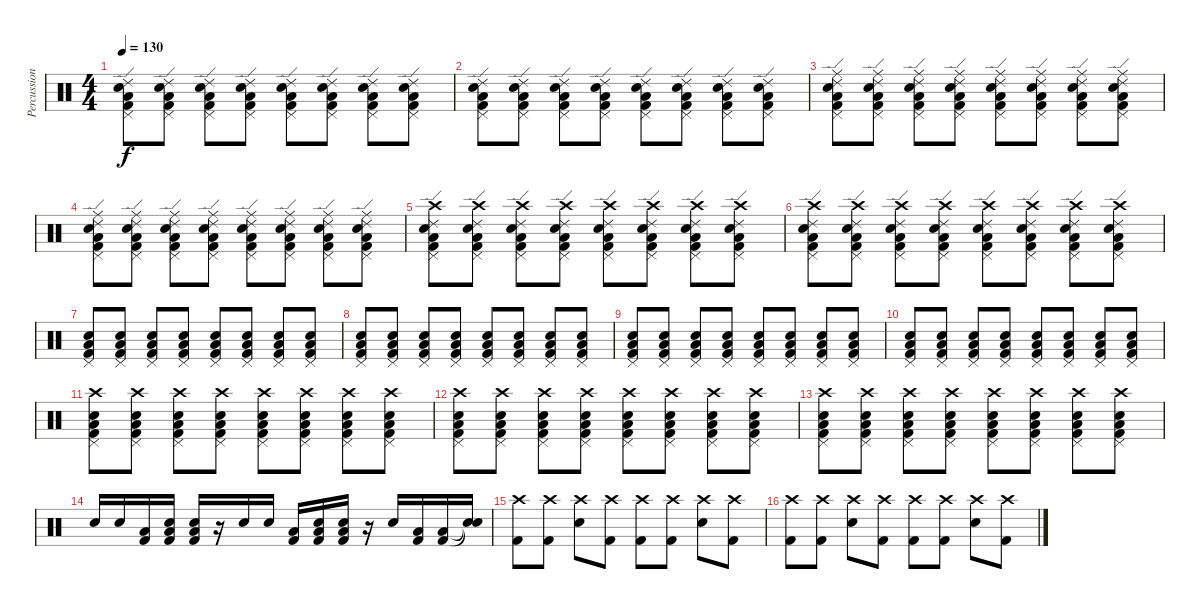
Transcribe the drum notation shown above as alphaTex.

\track ("Percussion" "Percussion") {instrument percussion}
\staff {score}
\articulation defaults
\ts (4 4)
\tempo 130
\clef neutral
\ks c
("Low Tom (hit)" "Snare (hit) 2" "Pedal Hi-Hat (hit)" "Kick (hit) 2" "Ride (edge) 2").8{dy f} ("Low Tom (hit)" "Snare (hit) 2" "Pedal Hi-Hat (hit)" "Kick (hit) 2" "Ride (edge) 2").8 ("Low Tom (hit)" "Snare (hit) 2" "Pedal Hi-Hat (hit)" "Kick (hit) 2" "Ride (edge) 2").8 ("Low Tom (hit)" "Snare (hit) 2" "Pedal Hi-Hat (hit)" "Kick (hit) 2" "Ride (edge) 2").8 ("Low Tom (hit)" "Snare (hit) 2" "Pedal Hi-Hat (hit)" "Kick (hit) 2" "Ride (edge) 2").8 ("Low Tom (hit)" "Snare (hit) 2" "Pedal Hi-Hat (hit)" "Kick (hit) 2" "Ride (edge) 2").8 ("Low Tom (hit)" "Snare (hit) 2" "Pedal Hi-Hat (hit)" "Kick (hit) 2" "Ride (edge) 2").8 ("Low Tom (hit)" "Snare (hit) 2" "Pedal Hi-Hat (hit)" "Kick (hit) 2" "Ride (edge) 2").8 |
("Low Tom (hit)" "Snare (hit) 2" "Pedal Hi-Hat (hit)" "Kick (hit) 2" "Ride (edge) 2").8 ("Low Tom (hit)" "Snare (hit) 2" "Pedal Hi-Hat (hit)" "Kick (hit) 2" "Ride (edge) 2").8 ("Low Tom (hit)" "Snare (hit) 2" "Pedal Hi-Hat (hit)" "Kick (hit) 2" "Ride (edge) 2").8 ("Low Tom (hit)" "Snare (hit) 2" "Pedal Hi-Hat (hit)" "Kick (hit) 2" "Ride (edge) 2").8 ("Low Tom (hit)" "Snare (hit) 2" "Pedal Hi-Hat (hit)" "Kick (hit) 2" "Ride (edge) 2").8 ("Low Tom (hit)" "Snare (hit) 2" "Pedal Hi-Hat (hit)" "Kick (hit) 2" "Ride (edge) 2").8 ("Low Tom (hit)" "Snare (hit) 2" "Pedal Hi-Hat (hit)" "Kick (hit) 2" "Ride (edge) 2").8 ("Low Tom (hit)" "Snare (hit) 2" "Pedal Hi-Hat (hit)" "Kick (hit) 2" "Ride (edge) 2").8 |
("Ride (edge) 2" "Low Tom (hit)" "Snare (hit) 2" "Pedal Hi-Hat (hit)" "Kick (hit) 2" "Ride (middle)").8 ("Ride (edge) 2" "Low Tom (hit)" "Snare (hit) 2" "Pedal Hi-Hat (hit)" "Kick (hit) 2" "Ride (middle)").8 ("Ride (edge) 2" "Low Tom (hit)" "Snare (hit) 2" "Pedal Hi-Hat (hit)" "Kick (hit) 2" "Ride (middle)").8 ("Ride (edge) 2" "Low Tom (hit)" "Snare (hit) 2" "Pedal Hi-Hat (hit)" "Kick (hit) 2" "Ride (middle)").8 ("Ride (edge) 2" "Low Tom (hit)" "Snare (hit) 2" "Pedal Hi-Hat (hit)" "Kick (hit) 2" "Ride (middle)").8 ("Ride (edge) 2" "Low Tom (hit)" "Snare (hit) 2" "Pedal Hi-Hat (hit)" "Kick (hit) 2" "Ride (middle)").8 ("Ride (edge) 2" "Low Tom (hit)" "Snare (hit) 2" "Pedal Hi-Hat (hit)" "Kick (hit) 2" "Ride (middle)").8 ("Ride (edge) 2" "Low Tom (hit)" "Snare (hit) 2" "Pedal Hi-Hat (hit)" "Kick (hit) 2" "Ride (middle)").8 |
("Ride (edge) 2" "Low Tom (hit)" "Snare (hit) 2" "Pedal Hi-Hat (hit)" "Kick (hit) 2" "Ride (middle)").8 ("Ride (edge) 2" "Low Tom (hit)" "Snare (hit) 2" "Pedal Hi-Hat (hit)" "Kick (hit) 2" "Ride (middle)").8 ("Ride (edge) 2" "Low Tom (hit)" "Snare (hit) 2" "Pedal Hi-Hat (hit)" "Kick (hit) 2" "Ride (middle)").8 ("Ride (edge) 2" "Low Tom (hit)" "Snare (hit) 2" "Pedal Hi-Hat (hit)" "Kick (hit) 2" "Ride (middle)").8 ("Ride (edge) 2" "Low Tom (hit)" "Snare (hit) 2" "Pedal Hi-Hat (hit)" "Kick (hit) 2" "Ride (middle)").8 ("Ride (edge) 2" "Low Tom (hit)" "Snare (hit) 2" "Pedal Hi-Hat (hit)" "Kick (hit) 2" "Ride (middle)").8 ("Ride (edge) 2" "Low Tom (hit)" "Snare (hit) 2" "Pedal Hi-Hat (hit)" "Kick (hit) 2" "Ride (middle)").8 ("Ride (edge) 2" "Low Tom (hit)" "Snare (hit) 2" "Pedal Hi-Hat (hit)" "Kick (hit) 2" "Ride (middle)").8 |
("Ride (edge) 2" "Low Tom (hit)" "Snare (hit) 2" "Pedal Hi-Hat (hit)" "Kick (hit) 2" "Crash high (hit)").8 ("Ride (edge) 2" "Low Tom (hit)" "Snare (hit) 2" "Pedal Hi-Hat (hit)" "Kick (hit) 2" "Crash high (hit)").8 ("Ride (edge) 2" "Low Tom (hit)" "Snare (hit) 2" "Pedal Hi-Hat (hit)" "Kick (hit) 2" "Crash high (hit)").8 ("Ride (edge) 2" "Low Tom (hit)" "Snare (hit) 2" "Pedal Hi-Hat (hit)" "Kick (hit) 2" "Crash high (hit)").8 ("Ride (edge) 2" "Low Tom (hit)" "Snare (hit) 2" "Pedal Hi-Hat (hit)" "Kick (hit) 2" "Crash high (hit)").8 ("Ride (edge) 2" "Low Tom (hit)" "Snare (hit) 2" "Pedal Hi-Hat (hit)" "Kick (hit) 2" "Crash high (hit)").8 ("Ride (edge) 2" "Low Tom (hit)" "Snare (hit) 2" "Pedal Hi-Hat (hit)" "Kick (hit) 2" "Crash high (hit)").8 ("Ride (edge) 2" "Low Tom (hit)" "Snare (hit) 2" "Pedal Hi-Hat (hit)" "Kick (hit) 2" "Crash high (hit)").8 |
("Ride (edge) 2" "Low Tom (hit)" "Snare (hit) 2" "Pedal Hi-Hat (hit)" "Kick (hit) 2" "Crash high (hit)").8 ("Ride (edge) 2" "Low Tom (hit)" "Snare (hit) 2" "Pedal Hi-Hat (hit)" "Kick (hit) 2" "Crash high (hit)").8 ("Ride (edge) 2" "Low Tom (hit)" "Snare (hit) 2" "Pedal Hi-Hat (hit)" "Kick (hit) 2" "Crash high (hit)").8 ("Ride (edge) 2" "Low Tom (hit)" "Snare (hit) 2" "Pedal Hi-Hat (hit)" "Kick (hit) 2" "Crash high (hit)").8 ("Ride (edge) 2" "Low Tom (hit)" "Snare (hit) 2" "Pedal Hi-Hat (hit)" "Kick (hit) 2" "Crash high (hit)").8 ("Ride (edge) 2" "Low Tom (hit)" "Snare (hit) 2" "Pedal Hi-Hat (hit)" "Kick (hit) 2" "Crash high (hit)").8 ("Ride (edge) 2" "Low Tom (hit)" "Snare (hit) 2" "Pedal Hi-Hat (hit)" "Kick (hit) 2" "Crash high (hit)").8 ("Ride (edge) 2" "Low Tom (hit)" "Snare (hit) 2" "Pedal Hi-Hat (hit)" "Kick (hit) 2" "Crash high (hit)").8 |
("Low Tom (hit)" "Snare (hit) 2" "Pedal Hi-Hat (hit)" "Kick (hit) 2").8 ("Low Tom (hit)" "Snare (hit) 2" "Pedal Hi-Hat (hit)" "Kick (hit) 2").8 ("Low Tom (hit)" "Snare (hit) 2" "Pedal Hi-Hat (hit)" "Kick (hit) 2").8 ("Low Tom (hit)" "Snare (hit) 2" "Pedal Hi-Hat (hit)" "Kick (hit) 2").8 ("Low Tom (hit)" "Snare (hit) 2" "Pedal Hi-Hat (hit)" "Kick (hit) 2").8 ("Low Tom (hit)" "Snare (hit) 2" "Pedal Hi-Hat (hit)" "Kick (hit) 2").8 ("Low Tom (hit)" "Snare (hit) 2" "Pedal Hi-Hat (hit)" "Kick (hit) 2").8 ("Low Tom (hit)" "Snare (hit) 2" "Pedal Hi-Hat (hit)" "Kick (hit) 2").8 |
("Low Tom (hit)" "Snare (hit) 2" "Pedal Hi-Hat (hit)" "Kick (hit) 2").8 ("Low Tom (hit)" "Snare (hit) 2" "Pedal Hi-Hat (hit)" "Kick (hit) 2").8 ("Low Tom (hit)" "Snare (hit) 2" "Pedal Hi-Hat (hit)" "Kick (hit) 2").8 ("Low Tom (hit)" "Snare (hit) 2" "Pedal Hi-Hat (hit)" "Kick (hit) 2").8 ("Low Tom (hit)" "Snare (hit) 2" "Pedal Hi-Hat (hit)" "Kick (hit) 2").8 ("Low Tom (hit)" "Snare (hit) 2" "Pedal Hi-Hat (hit)" "Kick (hit) 2").8 ("Low Tom (hit)" "Snare (hit) 2" "Pedal Hi-Hat (hit)" "Kick (hit) 2").8 ("Low Tom (hit)" "Snare (hit) 2" "Pedal Hi-Hat (hit)" "Kick (hit) 2").8 |
("Low Tom (hit)" "Snare (hit) 2" "Pedal Hi-Hat (hit)" "Kick (hit) 2").8 ("Low Tom (hit)" "Snare (hit) 2" "Pedal Hi-Hat (hit)" "Kick (hit) 2").8 ("Low Tom (hit)" "Snare (hit) 2" "Pedal Hi-Hat (hit)" "Kick (hit) 2").8 ("Low Tom (hit)" "Snare (hit) 2" "Pedal Hi-Hat (hit)" "Kick (hit) 2").8 ("Low Tom (hit)" "Snare (hit) 2" "Pedal Hi-Hat (hit)" "Kick (hit) 2").8 ("Low Tom (hit)" "Snare (hit) 2" "Pedal Hi-Hat (hit)" "Kick (hit) 2").8 ("Low Tom (hit)" "Snare (hit) 2" "Pedal Hi-Hat (hit)" "Kick (hit) 2").8 ("Low Tom (hit)" "Snare (hit) 2" "Pedal Hi-Hat (hit)" "Kick (hit) 2").8 |
("Low Tom (hit)" "Snare (hit) 2" "Pedal Hi-Hat (hit)" "Kick (hit) 2").8 ("Low Tom (hit)" "Snare (hit) 2" "Pedal Hi-Hat (hit)" "Kick (hit) 2").8 ("Low Tom (hit)" "Snare (hit) 2" "Pedal Hi-Hat (hit)" "Kick (hit) 2").8 ("Low Tom (hit)" "Snare (hit) 2" "Pedal Hi-Hat (hit)" "Kick (hit) 2").8 ("Low Tom (hit)" "Snare (hit) 2" "Pedal Hi-Hat (hit)" "Kick (hit) 2").8 ("Low Tom (hit)" "Snare (hit) 2" "Pedal Hi-Hat (hit)" "Kick (hit) 2").8 ("Low Tom (hit)" "Snare (hit) 2" "Pedal Hi-Hat (hit)" "Kick (hit) 2").8 ("Low Tom (hit)" "Snare (hit) 2" "Pedal Hi-Hat (hit)" "Kick (hit) 2").8 |
("Low Tom (hit)" "Snare (hit) 2" "Pedal Hi-Hat (hit)" "Kick (hit) 2" "Crash high (hit)").8 ("Low Tom (hit)" "Snare (hit) 2" "Pedal Hi-Hat (hit)" "Kick (hit) 2" "Crash high (hit)").8 ("Low Tom (hit)" "Snare (hit) 2" "Pedal Hi-Hat (hit)" "Kick (hit) 2" "Crash high (hit)").8 ("Low Tom (hit)" "Snare (hit) 2" "Pedal Hi-Hat (hit)" "Kick (hit) 2" "Crash high (hit)").8 ("Low Tom (hit)" "Snare (hit) 2" "Pedal Hi-Hat (hit)" "Kick (hit) 2" "Crash high (hit)").8 ("Low Tom (hit)" "Snare (hit) 2" "Pedal Hi-Hat (hit)" "Kick (hit) 2" "Crash high (hit)").8 ("Low Tom (hit)" "Snare (hit) 2" "Pedal Hi-Hat (hit)" "Kick (hit) 2" "Crash high (hit)").8 ("Low Tom (hit)" "Snare (hit) 2" "Pedal Hi-Hat (hit)" "Kick (hit) 2" "Crash high (hit)").8 |
("Low Tom (hit)" "Snare (hit) 2" "Pedal Hi-Hat (hit)" "Kick (hit) 2" "Crash high (hit)").8 ("Low Tom (hit)" "Snare (hit) 2" "Pedal Hi-Hat (hit)" "Kick (hit) 2" "Crash high (hit)").8 ("Low Tom (hit)" "Snare (hit) 2" "Pedal Hi-Hat (hit)" "Kick (hit) 2" "Crash high (hit)").8 ("Low Tom (hit)" "Snare (hit) 2" "Pedal Hi-Hat (hit)" "Kick (hit) 2" "Crash high (hit)").8 ("Low Tom (hit)" "Snare (hit) 2" "Pedal Hi-Hat (hit)" "Kick (hit) 2" "Crash high (hit)").8 ("Low Tom (hit)" "Snare (hit) 2" "Pedal Hi-Hat (hit)" "Kick (hit) 2" "Crash high (hit)").8 ("Low Tom (hit)" "Snare (hit) 2" "Pedal Hi-Hat (hit)" "Kick (hit) 2" "Crash high (hit)").8 ("Low Tom (hit)" "Snare (hit) 2" "Pedal Hi-Hat (hit)" "Kick (hit) 2" "Crash high (hit)").8 |
("Low Tom (hit)" "Snare (hit) 2" "Pedal Hi-Hat (hit)" "Kick (hit) 2" "Crash high (hit)").8 ("Low Tom (hit)" "Snare (hit) 2" "Pedal Hi-Hat (hit)" "Kick (hit) 2" "Crash high (hit)").8 ("Low Tom (hit)" "Snare (hit) 2" "Pedal Hi-Hat (hit)" "Kick (hit) 2" "Crash high (hit)").8 ("Low Tom (hit)" "Snare (hit) 2" "Pedal Hi-Hat (hit)" "Kick (hit) 2" "Crash high (hit)").8 ("Low Tom (hit)" "Snare (hit) 2" "Pedal Hi-Hat (hit)" "Kick (hit) 2" "Crash high (hit)").8 ("Low Tom (hit)" "Snare (hit) 2" "Pedal Hi-Hat (hit)" "Kick (hit) 2" "Crash high (hit)").8 ("Low Tom (hit)" "Snare (hit) 2" "Pedal Hi-Hat (hit)" "Kick (hit) 2" "Crash high (hit)").8 ("Low Tom (hit)" "Snare (hit) 2" "Pedal Hi-Hat (hit)" "Kick (hit) 2" "Crash high (hit)").8 |
"Snare (hit) 2".16 "Snare (hit) 2".16 ("Low Tom (hit)" "Kick (hit) 2").16 ("Snare (hit) 2" "Low Tom (hit)" "Kick (hit) 2").16 ("Snare (hit) 2" "Low Tom (hit)" "Kick (hit) 2").16 r.16 "Snare (hit) 2".16 "Snare (hit) 2".16 ("Low Tom (hit)" "Kick (hit) 2").16 ("Snare (hit) 2" "Low Tom (hit)" "Kick (hit) 2").16 ("Snare (hit) 2" "Low Tom (hit)" "Kick (hit) 2").16 r.16 "Snare (hit) 2".16 ("Low Tom (hit)" "Kick (hit) 2").16 ("Low Tom (hit)" "Kick (hit) 2").16 ("Snare (hit)"{t} "Snare (hit)"{t}).16 |
("Crash high (hit)" "Kick (hit) 2").8 ("Crash high (hit)" "Kick (hit) 2").8 ("Crash high (hit)" "Snare (hit) 2").8 ("Crash high (hit)" "Kick (hit) 2").8 ("Crash high (hit)" "Kick (hit) 2").8 ("Crash high (hit)" "Kick (hit) 2").8 ("Crash high (hit)" "Snare (hit) 2").8 ("Crash high (hit)" "Kick (hit) 2").8 |
("Crash high (hit)" "Kick (hit) 2").8 ("Crash high (hit)" "Kick (hit) 2").8 ("Crash high (hit)" "Snare (hit) 2").8 ("Crash high (hit)" "Kick (hit) 2").8 ("Crash high (hit)" "Kick (hit) 2").8 ("Crash high (hit)" "Kick (hit) 2").8 ("Crash high (hit)" "Snare (hit) 2").8 ("Crash high (hit)" "Kick (hit) 2").8
